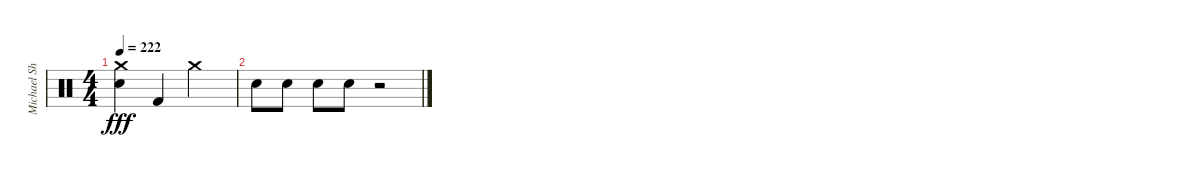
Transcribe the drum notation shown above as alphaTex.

\track ("Michael Sharp" "Michael Sh") {instrument percussion}
\staff {score}
\articulation defaults
\ts (4 4)
\tempo 222
\clef neutral
\ks c
("Crash medium (hit)" "Electric Snare (hit)").4{dy fff} "Kick (hit) 2".4 "Crash medium (hit)".2 |
"Electric Snare (hit)".8 "Electric Snare (hit)".8 "Electric Snare (hit)".8 "Electric Snare (hit)".8 r.2
